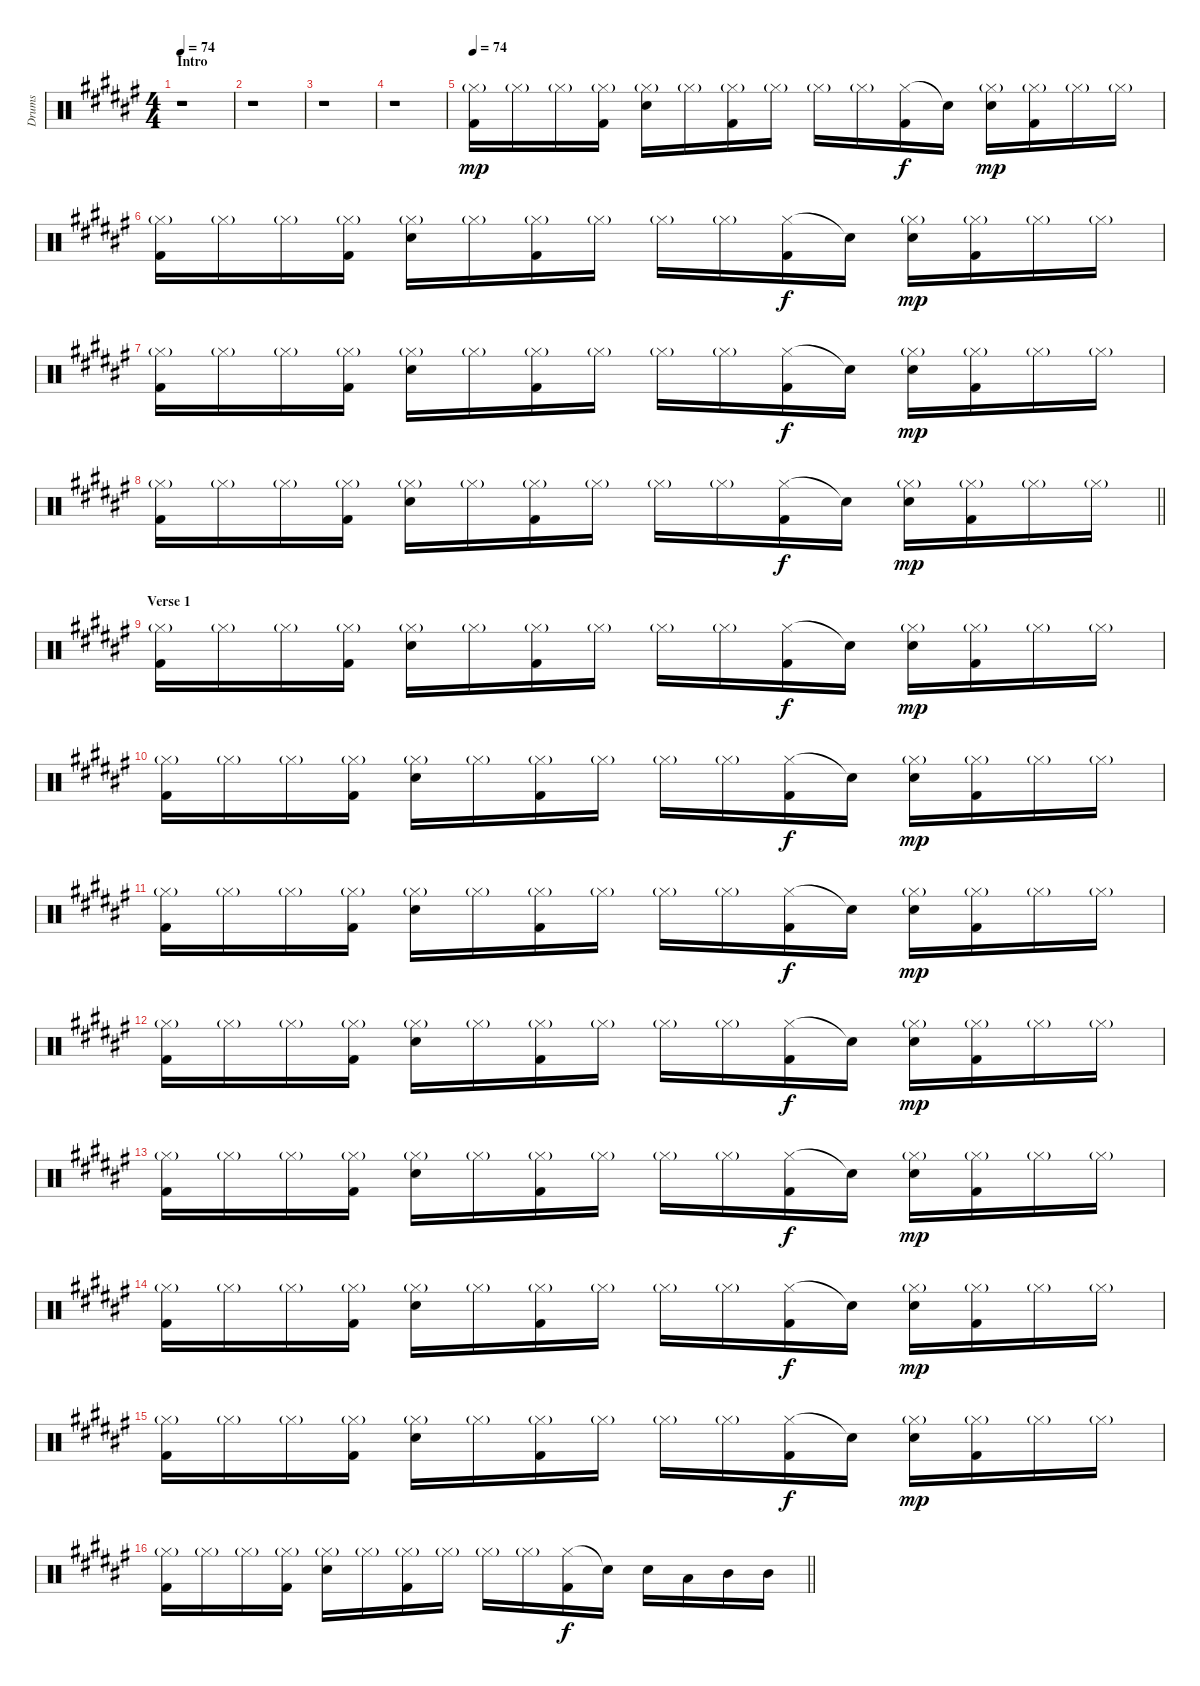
\track ("Drums" "Drums") {instrument percussion}
\staff {score}
\articulation defaults
\ts (4 4)
\section ("" "Intro")
\tempo 74
\tempo 100
\tempo 74
\clef neutral
\ks f#
r.1{dy mp} |
r.1 |
r.1 |
r.1 |
\tempo 74
("Hi-Hat (closed)"{g} "Kick (hit) 2").16 "Hi-Hat (closed)"{g}.16 "Hi-Hat (closed)"{g}.16 ("Hi-Hat (closed)"{g} "Kick (hit) 2").16 ("Hi-Hat (closed)"{g} "Electric Snare (hit)").16 "Hi-Hat (closed)"{g}.16 ("Hi-Hat (closed)"{g} "Kick (hit) 2").16 "Hi-Hat (closed)"{g}.16 "Hi-Hat (closed)"{g}.16 "Hi-Hat (closed)"{g}.16 ("Hi-Hat (closed)" "Kick (hit) 2").16{dy f} "Snare (hit)"{t}.16 ("Hi-Hat (closed)"{g} "Electric Snare (hit)").16{dy mp} ("Hi-Hat (closed)"{g} "Kick (hit) 2").16 "Hi-Hat (closed)"{g}.16 "Hi-Hat (closed)"{g}.16 |
("Hi-Hat (closed)"{g} "Kick (hit) 2").16 "Hi-Hat (closed)"{g}.16 "Hi-Hat (closed)"{g}.16 ("Hi-Hat (closed)"{g} "Kick (hit) 2").16 ("Hi-Hat (closed)"{g} "Electric Snare (hit)").16 "Hi-Hat (closed)"{g}.16 ("Hi-Hat (closed)"{g} "Kick (hit) 2").16 "Hi-Hat (closed)"{g}.16 "Hi-Hat (closed)"{g}.16 "Hi-Hat (closed)"{g}.16 ("Hi-Hat (closed)" "Kick (hit) 2").16{dy f} "Snare (hit)"{t}.16 ("Hi-Hat (closed)"{g} "Electric Snare (hit)").16{dy mp} ("Hi-Hat (closed)"{g} "Kick (hit) 2").16 "Hi-Hat (closed)"{g}.16 "Hi-Hat (closed)"{g}.16 |
("Hi-Hat (closed)"{g} "Kick (hit) 2").16 "Hi-Hat (closed)"{g}.16 "Hi-Hat (closed)"{g}.16 ("Hi-Hat (closed)"{g} "Kick (hit) 2").16 ("Hi-Hat (closed)"{g} "Electric Snare (hit)").16 "Hi-Hat (closed)"{g}.16 ("Hi-Hat (closed)"{g} "Kick (hit) 2").16 "Hi-Hat (closed)"{g}.16 "Hi-Hat (closed)"{g}.16 "Hi-Hat (closed)"{g}.16 ("Hi-Hat (closed)" "Kick (hit) 2").16{dy f} "Snare (hit)"{t}.16 ("Hi-Hat (closed)"{g} "Electric Snare (hit)").16{dy mp} ("Hi-Hat (closed)"{g} "Kick (hit) 2").16 "Hi-Hat (closed)"{g}.16 "Hi-Hat (closed)"{g}.16 |
\barLineRight lightlight
("Hi-Hat (closed)"{g} "Kick (hit) 2").16 "Hi-Hat (closed)"{g}.16 "Hi-Hat (closed)"{g}.16 ("Hi-Hat (closed)"{g} "Kick (hit) 2").16 ("Hi-Hat (closed)"{g} "Electric Snare (hit)").16 "Hi-Hat (closed)"{g}.16 ("Hi-Hat (closed)"{g} "Kick (hit) 2").16 "Hi-Hat (closed)"{g}.16 "Hi-Hat (closed)"{g}.16 "Hi-Hat (closed)"{g}.16 ("Hi-Hat (closed)" "Kick (hit) 2").16{dy f} "Snare (hit)"{t}.16 ("Hi-Hat (closed)"{g} "Electric Snare (hit)").16{dy mp} ("Hi-Hat (closed)"{g} "Kick (hit) 2").16 "Hi-Hat (closed)"{g}.16 "Hi-Hat (closed)"{g}.16 |
\section ("" "Verse 1")
("Hi-Hat (closed)"{g} "Kick (hit) 2").16 "Hi-Hat (closed)"{g}.16 "Hi-Hat (closed)"{g}.16 ("Hi-Hat (closed)"{g} "Kick (hit) 2").16 ("Hi-Hat (closed)"{g} "Electric Snare (hit)").16 "Hi-Hat (closed)"{g}.16 ("Hi-Hat (closed)"{g} "Kick (hit) 2").16 "Hi-Hat (closed)"{g}.16 "Hi-Hat (closed)"{g}.16 "Hi-Hat (closed)"{g}.16 ("Hi-Hat (closed)" "Kick (hit) 2").16{dy f} "Snare (hit)"{t}.16 ("Hi-Hat (closed)"{g} "Electric Snare (hit)").16{dy mp} ("Hi-Hat (closed)"{g} "Kick (hit) 2").16 "Hi-Hat (closed)"{g}.16 "Hi-Hat (closed)"{g}.16 |
("Hi-Hat (closed)"{g} "Kick (hit) 2").16 "Hi-Hat (closed)"{g}.16 "Hi-Hat (closed)"{g}.16 ("Hi-Hat (closed)"{g} "Kick (hit) 2").16 ("Hi-Hat (closed)"{g} "Electric Snare (hit)").16 "Hi-Hat (closed)"{g}.16 ("Hi-Hat (closed)"{g} "Kick (hit) 2").16 "Hi-Hat (closed)"{g}.16 "Hi-Hat (closed)"{g}.16 "Hi-Hat (closed)"{g}.16 ("Hi-Hat (closed)" "Kick (hit) 2").16{dy f} "Snare (hit)"{t}.16 ("Hi-Hat (closed)"{g} "Electric Snare (hit)").16{dy mp} ("Hi-Hat (closed)"{g} "Kick (hit) 2").16 "Hi-Hat (closed)"{g}.16 "Hi-Hat (closed)"{g}.16 |
("Hi-Hat (closed)"{g} "Kick (hit) 2").16 "Hi-Hat (closed)"{g}.16 "Hi-Hat (closed)"{g}.16 ("Hi-Hat (closed)"{g} "Kick (hit) 2").16 ("Hi-Hat (closed)"{g} "Electric Snare (hit)").16 "Hi-Hat (closed)"{g}.16 ("Hi-Hat (closed)"{g} "Kick (hit) 2").16 "Hi-Hat (closed)"{g}.16 "Hi-Hat (closed)"{g}.16 "Hi-Hat (closed)"{g}.16 ("Hi-Hat (closed)" "Kick (hit) 2").16{dy f} "Snare (hit)"{t}.16 ("Hi-Hat (closed)"{g} "Electric Snare (hit)").16{dy mp} ("Hi-Hat (closed)"{g} "Kick (hit) 2").16 "Hi-Hat (closed)"{g}.16 "Hi-Hat (closed)"{g}.16 |
("Hi-Hat (closed)"{g} "Kick (hit) 2").16 "Hi-Hat (closed)"{g}.16 "Hi-Hat (closed)"{g}.16 ("Hi-Hat (closed)"{g} "Kick (hit) 2").16 ("Hi-Hat (closed)"{g} "Electric Snare (hit)").16 "Hi-Hat (closed)"{g}.16 ("Hi-Hat (closed)"{g} "Kick (hit) 2").16 "Hi-Hat (closed)"{g}.16 "Hi-Hat (closed)"{g}.16 "Hi-Hat (closed)"{g}.16 ("Hi-Hat (closed)" "Kick (hit) 2").16{dy f} "Snare (hit)"{t}.16 ("Hi-Hat (closed)"{g} "Electric Snare (hit)").16{dy mp} ("Hi-Hat (closed)"{g} "Kick (hit) 2").16 "Hi-Hat (closed)"{g}.16 "Hi-Hat (closed)"{g}.16 |
("Hi-Hat (closed)"{g} "Kick (hit) 2").16 "Hi-Hat (closed)"{g}.16 "Hi-Hat (closed)"{g}.16 ("Hi-Hat (closed)"{g} "Kick (hit) 2").16 ("Hi-Hat (closed)"{g} "Electric Snare (hit)").16 "Hi-Hat (closed)"{g}.16 ("Hi-Hat (closed)"{g} "Kick (hit) 2").16 "Hi-Hat (closed)"{g}.16 "Hi-Hat (closed)"{g}.16 "Hi-Hat (closed)"{g}.16 ("Hi-Hat (closed)" "Kick (hit) 2").16{dy f} "Snare (hit)"{t}.16 ("Hi-Hat (closed)"{g} "Electric Snare (hit)").16{dy mp} ("Hi-Hat (closed)"{g} "Kick (hit) 2").16 "Hi-Hat (closed)"{g}.16 "Hi-Hat (closed)"{g}.16 |
("Hi-Hat (closed)"{g} "Kick (hit) 2").16 "Hi-Hat (closed)"{g}.16 "Hi-Hat (closed)"{g}.16 ("Hi-Hat (closed)"{g} "Kick (hit) 2").16 ("Hi-Hat (closed)"{g} "Electric Snare (hit)").16 "Hi-Hat (closed)"{g}.16 ("Hi-Hat (closed)"{g} "Kick (hit) 2").16 "Hi-Hat (closed)"{g}.16 "Hi-Hat (closed)"{g}.16 "Hi-Hat (closed)"{g}.16 ("Hi-Hat (closed)" "Kick (hit) 2").16{dy f} "Snare (hit)"{t}.16 ("Hi-Hat (closed)"{g} "Electric Snare (hit)").16{dy mp} ("Hi-Hat (closed)"{g} "Kick (hit) 2").16 "Hi-Hat (closed)"{g}.16 "Hi-Hat (closed)"{g}.16 |
("Hi-Hat (closed)"{g} "Kick (hit) 2").16 "Hi-Hat (closed)"{g}.16 "Hi-Hat (closed)"{g}.16 ("Hi-Hat (closed)"{g} "Kick (hit) 2").16 ("Hi-Hat (closed)"{g} "Electric Snare (hit)").16 "Hi-Hat (closed)"{g}.16 ("Hi-Hat (closed)"{g} "Kick (hit) 2").16 "Hi-Hat (closed)"{g}.16 "Hi-Hat (closed)"{g}.16 "Hi-Hat (closed)"{g}.16 ("Hi-Hat (closed)" "Kick (hit) 2").16{dy f} "Snare (hit)"{t}.16 ("Hi-Hat (closed)"{g} "Electric Snare (hit)").16{dy mp} ("Hi-Hat (closed)"{g} "Kick (hit) 2").16 "Hi-Hat (closed)"{g}.16 "Hi-Hat (closed)"{g}.16 |
\barLineRight lightlight
("Hi-Hat (closed)"{g} "Kick (hit) 2").16 "Hi-Hat (closed)"{g}.16 "Hi-Hat (closed)"{g}.16 ("Hi-Hat (closed)"{g} "Kick (hit) 2").16 ("Hi-Hat (closed)"{g} "Electric Snare (hit)").16 "Hi-Hat (closed)"{g}.16 ("Hi-Hat (closed)"{g} "Kick (hit) 2").16 "Hi-Hat (closed)"{g}.16 "Hi-Hat (closed)"{g}.16 "Hi-Hat (closed)"{g}.16 ("Hi-Hat (closed)" "Kick (hit) 2").16{dy f} "Snare (hit)"{t}.16 "Electric Snare (hit)".16 "Low Tom (hit)".16 "Mid Tom (hit)".16 "Mid Tom (hit)".16
